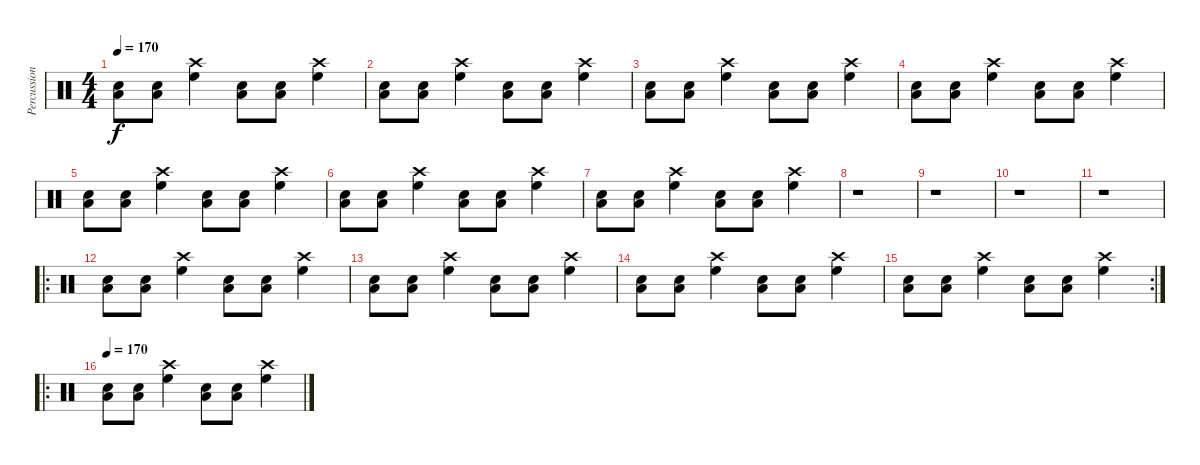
\track ("Percussion" "Percussion") {instrument percussion}
\staff {score}
\articulation defaults
\ts (4 4)
\tempo 170
\clef neutral
\ks c
("Low Floor Tom (hit)" "Electric Snare (hit)").8{dy f} ("Low Floor Tom (hit)" "Electric Snare (hit)").8 ("High Floor Tom (hit)" "Crash high (hit)").4 ("Low Floor Tom (hit)" "Electric Snare (hit)").8 ("Low Floor Tom (hit)" "Electric Snare (hit)").8 ("High Floor Tom (hit)" "Crash high (hit)").4 |
("Low Floor Tom (hit)" "Electric Snare (hit)").8 ("Low Floor Tom (hit)" "Electric Snare (hit)").8 ("High Floor Tom (hit)" "Crash high (hit)").4 ("Low Floor Tom (hit)" "Electric Snare (hit)").8 ("Low Floor Tom (hit)" "Electric Snare (hit)").8 ("High Floor Tom (hit)" "Crash high (hit)").4 |
("Low Floor Tom (hit)" "Electric Snare (hit)").8 ("Low Floor Tom (hit)" "Electric Snare (hit)").8 ("High Floor Tom (hit)" "Crash high (hit)").4 ("Low Floor Tom (hit)" "Electric Snare (hit)").8 ("Low Floor Tom (hit)" "Electric Snare (hit)").8 ("High Floor Tom (hit)" "Crash high (hit)").4 |
("Low Floor Tom (hit)" "Electric Snare (hit)").8 ("Low Floor Tom (hit)" "Electric Snare (hit)").8 ("High Floor Tom (hit)" "Crash high (hit)").4 ("Low Floor Tom (hit)" "Electric Snare (hit)").8 ("Low Floor Tom (hit)" "Electric Snare (hit)").8 ("High Floor Tom (hit)" "Crash high (hit)").4 |
("Low Floor Tom (hit)" "Electric Snare (hit)").8 ("Low Floor Tom (hit)" "Electric Snare (hit)").8 ("High Floor Tom (hit)" "Crash high (hit)").4 ("Low Floor Tom (hit)" "Electric Snare (hit)").8 ("Low Floor Tom (hit)" "Electric Snare (hit)").8 ("High Floor Tom (hit)" "Crash high (hit)").4 |
("Low Floor Tom (hit)" "Electric Snare (hit)").8 ("Low Floor Tom (hit)" "Electric Snare (hit)").8 ("High Floor Tom (hit)" "Crash high (hit)").4 ("Low Floor Tom (hit)" "Electric Snare (hit)").8 ("Low Floor Tom (hit)" "Electric Snare (hit)").8 ("High Floor Tom (hit)" "Crash high (hit)").4 |
("Low Floor Tom (hit)" "Electric Snare (hit)").8 ("Low Floor Tom (hit)" "Electric Snare (hit)").8 ("High Floor Tom (hit)" "Crash high (hit)").4 ("Low Floor Tom (hit)" "Electric Snare (hit)").8 ("Low Floor Tom (hit)" "Electric Snare (hit)").8 ("High Floor Tom (hit)" "Crash high (hit)").4 |
r.1 |
r.1 |
r.1 |
r.1 |
\ro
("Low Floor Tom (hit)" "Electric Snare (hit)").8 ("Low Floor Tom (hit)" "Electric Snare (hit)").8 ("High Floor Tom (hit)" "Crash high (hit)").4 ("Low Floor Tom (hit)" "Electric Snare (hit)").8 ("Low Floor Tom (hit)" "Electric Snare (hit)").8 ("High Floor Tom (hit)" "Crash high (hit)").4 |
("Low Floor Tom (hit)" "Electric Snare (hit)").8 ("Low Floor Tom (hit)" "Electric Snare (hit)").8 ("High Floor Tom (hit)" "Crash high (hit)").4 ("Low Floor Tom (hit)" "Electric Snare (hit)").8 ("Low Floor Tom (hit)" "Electric Snare (hit)").8 ("High Floor Tom (hit)" "Crash high (hit)").4 |
("Low Floor Tom (hit)" "Electric Snare (hit)").8 ("Low Floor Tom (hit)" "Electric Snare (hit)").8 ("High Floor Tom (hit)" "Crash high (hit)").4 ("Low Floor Tom (hit)" "Electric Snare (hit)").8 ("Low Floor Tom (hit)" "Electric Snare (hit)").8 ("High Floor Tom (hit)" "Crash high (hit)").4 |
\rc 2
("Low Floor Tom (hit)" "Electric Snare (hit)").8 ("Low Floor Tom (hit)" "Electric Snare (hit)").8 ("High Floor Tom (hit)" "Crash high (hit)").4 ("Low Floor Tom (hit)" "Electric Snare (hit)").8 ("Low Floor Tom (hit)" "Electric Snare (hit)").8 ("High Floor Tom (hit)" "Crash high (hit)").4 |
\ro
\tempo 170
("Low Floor Tom (hit)" "Electric Snare (hit)").8 ("Low Floor Tom (hit)" "Electric Snare (hit)").8 ("High Floor Tom (hit)" "Crash high (hit)").4 ("Low Floor Tom (hit)" "Electric Snare (hit)").8 ("Low Floor Tom (hit)" "Electric Snare (hit)").8 ("High Floor Tom (hit)" "Crash high (hit)").4
